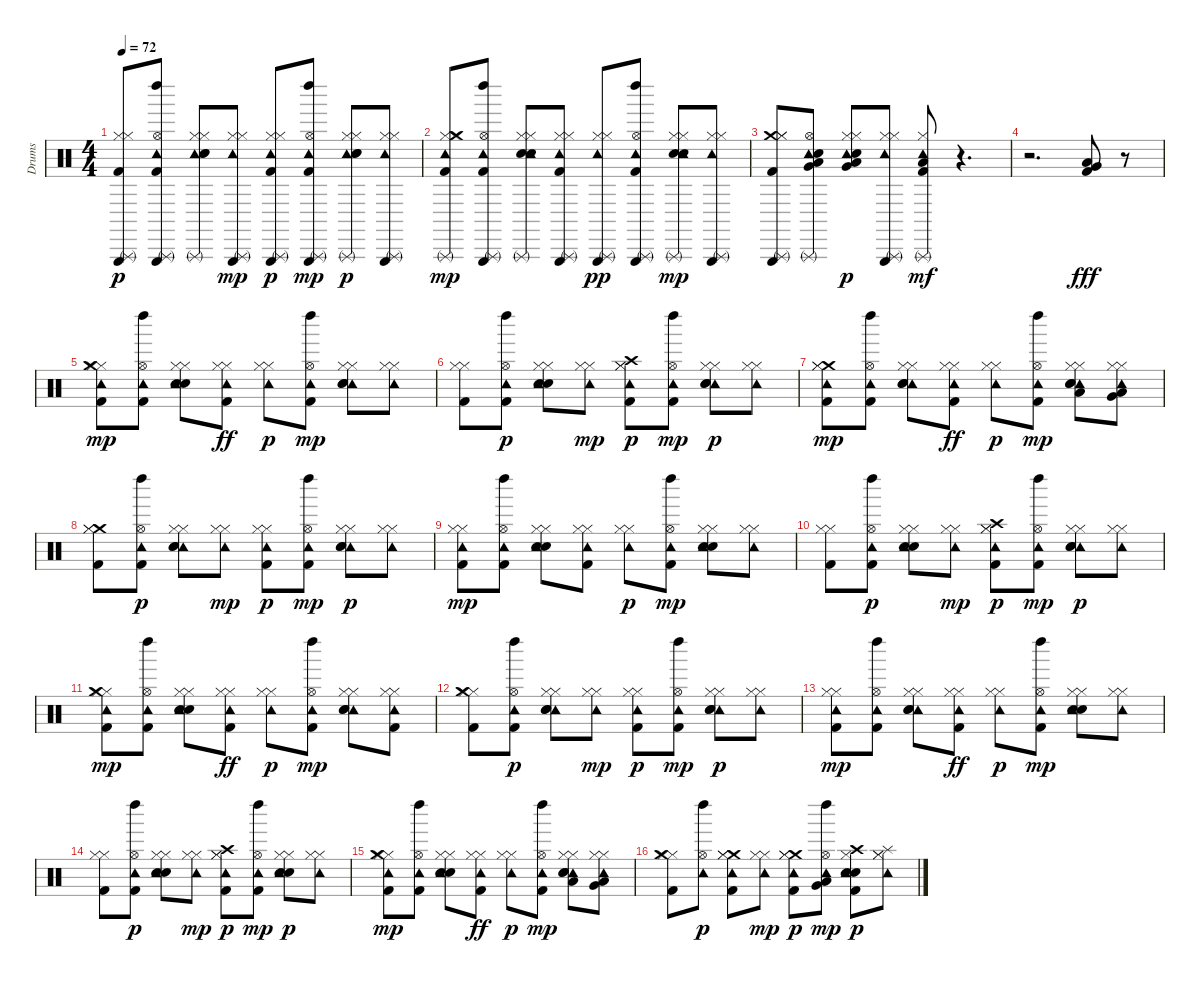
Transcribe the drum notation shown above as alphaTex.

\track ("Drums" "Drums") {instrument percussion}
\staff {score}
\articulation defaults
\ts (4 4)
\tempo 72
\clef neutral
\ks c
("Triangle (rnute)" "Kick (hit) 2" "Hi-Hat (closed)" "Hi-Hat (closed)" "Triangle (hit)").8{dy p} ("Tambourine (hit)" "Kick (hit) 2" "Triangle (rnute)" "Hi-Hat (open)" "Triangle (hit)" "Left Maraca (hit)").8 ("Hi-Hat (closed)" "Tambourine (hit)" "Electric Snare (hit)" "Hand Clap (hit)" "Hi-Hat (closed)" "Triangle (rnute)").8 ("Tambourine (hit)" "Triangle (rnute)" "Hi-Hat (closed)" "Triangle (hit)" "Hi-Hat (closed)").8{dy mp} ("Kick (hit) 2" "Hi-Hat (closed)" "Triangle (rnute)" "Tambourine (hit)" "Triangle (hit)" "Hi-Hat (closed)").8{dy p} ("Tambourine (hit)" "Kick (hit) 2" "Hi-Hat (open)" "Triangle (rnute)" "Triangle (hit)" "Left Maraca (hit)").8{dy mp} ("Tambourine (hit)" "Hi-Hat (closed)" "Hand Clap (hit)" "Electric Snare (hit)" "Triangle (rnute)" "Hi-Hat (closed)").8{dy p} ("Tambourine (hit)" "Hi-Hat (closed)" "Triangle (rnute)" "Triangle (hit)" "Hi-Hat (closed)").8 |
("Hi-Hat (closed)" "Kick (hit) 2" "Tambourine (hit)" "Triangle (rnute)" "Crash medium (hit)" "Hi-Hat (closed)").8{dy mp} ("Kick (hit) 2" "Hi-Hat (open)" "Tambourine (hit)" "Triangle (rnute)" "Triangle (hit)" "Left Maraca (hit)").8 ("Hand Clap (hit)" "Tambourine (hit)" "Electric Snare (hit)" "Hi-Hat (closed)" "Triangle (rnute)" "Hi-Hat (closed)").8 ("Hi-Hat (closed)" "Tambourine (hit)" "Triangle (rnute)" "Kick (hit) 2" "Triangle (hit)" "Hi-Hat (closed)").8 ("Triangle (rnute)" "Hi-Hat (closed)" "Tambourine (hit)" "Hi-Hat (closed)" "Triangle (hit)").8{dy pp} ("Triangle (rnute)" "Tambourine (hit)" "Kick (hit) 2" "Hi-Hat (open)" "Left Maraca (hit)" "Triangle (hit)").8 ("Electric Snare (hit)" "Hi-Hat (closed)" "Tambourine (hit)" "Hand Clap (hit)" "Triangle (rnute)" "Hi-Hat (closed)").8{dy mp} ("Triangle (rnute)" "Tambourine (hit)" "Hi-Hat (closed)" "Triangle (hit)" "Hi-Hat (closed)").8 |
("Triangle (rnute)" "Crash medium (hit)" "Hi-Hat (closed)" "Kick (hit) 2" "Triangle (hit)" "Hi-Hat (closed)").8 ("Tambourine (hit)" "Low Tom (hit)" "Hi-Hat (open)" "Triangle (rnute)" "Very Low Tom (hit)" "Hand Clap (hit)").8 ("Tambourine (hit)" "Hi-Hat (closed)" "Very Low Tom (hit)" "Low Floor Tom (hit)" "Hi-Hat (closed)" "Electric Snare (hit)").8{dy p} ("Hi-Hat (closed)" "Tambourine (hit)" "Triangle (rnute)" "Hi-Hat (closed)" "Triangle (hit)").8 ("Triangle (rnute)" "Kick (hit) 2" "Tambourine (hit)" "Low Floor Tom (hit)" "Hi-Hat (closed)").8{dy mf} r.4{d} |
r.2{d} ("Low Floor Tom (hit)" "Kick (hit) 2" "Very Low Tom (hit)").8{dy fff} r.8 |
("Hi-Hat (closed)" "Tambourine (hit)" "Kick (hit) 2" "Crash medium (hit)" "Hi-Hat (closed)").8{dy mp} ("Kick (hit) 2" "Hi-Hat (open)" "Tambourine (hit)" "Left Maraca (hit)").8 ("Hand Clap (hit)" "Electric Snare (hit)" "Hi-Hat (closed)" "Tambourine (hit)" "Hi-Hat (closed)").8 ("Tambourine (hit)" "Hi-Hat (closed)" "Hi-Hat (closed)" "Kick (hit) 2").8{dy ff} ("Tambourine (hit)" "Hi-Hat (closed)" "Hi-Hat (closed)").8{dy p} ("Kick (hit) 2" "Hi-Hat (open)" "Tambourine (hit)" "Left Maraca (hit)").8{dy mp} ("Tambourine (hit)" "Electric Snare (hit)" "Hand Clap (hit)" "Hi-Hat (closed)" "Hi-Hat (closed)").8 ("Hi-Hat (closed)" "Tambourine (hit)" "Hi-Hat (closed)").8 |
("Hi-Hat (closed)" "Kick (hit) 2" "Hi-Hat (closed)").8 ("Tambourine (hit)" "Kick (hit) 2" "Hi-Hat (open)" "Left Maraca (hit)").8{dy p} ("Hand Clap (hit)" "Electric Snare (hit)" "Hi-Hat (closed)" "Tambourine (hit)" "Hi-Hat (closed)").8 ("Hi-Hat (closed)" "Tambourine (hit)" "Hi-Hat (closed)").8{dy mp} ("Kick (hit) 2" "Tambourine (hit)" "Crash high (hit)" "Hi-Hat (closed)" "Hi-Hat (closed)").8{dy p} ("Hi-Hat (open)" "Kick (hit) 2" "Tambourine (hit)" "Left Maraca (hit)").8{dy mp} ("Tambourine (hit)" "Hand Clap (hit)" "Electric Snare (hit)" "Hi-Hat (closed)" "Hi-Hat (closed)").8{dy p} ("Tambourine (hit)" "Hi-Hat (closed)" "Hi-Hat (closed)").8 |
("Kick (hit) 2" "Crash medium (hit)" "Tambourine (hit)" "Hi-Hat (closed)" "Hi-Hat (closed)").8{dy mp} ("Hi-Hat (open)" "Tambourine (hit)" "Kick (hit) 2" "Left Maraca (hit)").8 ("Hi-Hat (closed)" "Tambourine (hit)" "Electric Snare (hit)" "Hand Clap (hit)" "Hi-Hat (closed)").8 ("Hi-Hat (closed)" "Tambourine (hit)" "Hi-Hat (closed)" "Kick (hit) 2").8{dy ff} ("Tambourine (hit)" "Hi-Hat (closed)" "Hi-Hat (closed)").8{dy p} ("Tambourine (hit)" "Kick (hit) 2" "Hi-Hat (open)" "Left Maraca (hit)").8{dy mp} ("Low Tom (hit)" "Hi-Hat (closed)" "Tambourine (hit)" "Electric Snare (hit)" "Hand Clap (hit)" "Hi-Hat (closed)").8 ("Very Low Tom (hit)" "Tambourine (hit)" "Hi-Hat (closed)" "Low Floor Tom (hit)" "Hi-Hat (closed)").8 |
("Kick (hit) 2" "Crash medium (hit)" "Hi-Hat (closed)" "Hi-Hat (closed)").8 ("Tambourine (hit)" "Kick (hit) 2" "Hi-Hat (open)" "Left Maraca (hit)").8{dy p} ("Tambourine (hit)" "Hi-Hat (closed)" "Hand Clap (hit)" "Electric Snare (hit)" "Hi-Hat (closed)").8 ("Tambourine (hit)" "Hi-Hat (closed)" "Hi-Hat (closed)").8{dy mp} ("Hi-Hat (closed)" "Tambourine (hit)" "Kick (hit) 2" "Hi-Hat (closed)").8{dy p} ("Tambourine (hit)" "Hi-Hat (open)" "Kick (hit) 2" "Left Maraca (hit)").8{dy mp} ("Hi-Hat (closed)" "Tambourine (hit)" "Electric Snare (hit)" "Hand Clap (hit)" "Hi-Hat (closed)").8{dy p} ("Hi-Hat (closed)" "Tambourine (hit)" "Hi-Hat (closed)").8 |
("Tambourine (hit)" "Kick (hit) 2" "Hi-Hat (closed)" "Hi-Hat (closed)").8{dy mp} ("Kick (hit) 2" "Hi-Hat (open)" "Tambourine (hit)" "Left Maraca (hit)").8 ("Hand Clap (hit)" "Hi-Hat (closed)" "Tambourine (hit)" "Electric Snare (hit)" "Hi-Hat (closed)").8 ("Tambourine (hit)" "Hi-Hat (closed)" "Kick (hit) 2" "Hi-Hat (closed)").8 ("Tambourine (hit)" "Hi-Hat (closed)" "Hi-Hat (closed)").8{dy p} ("Tambourine (hit)" "Kick (hit) 2" "Hi-Hat (open)" "Left Maraca (hit)").8{dy mp} ("Hi-Hat (closed)" "Hand Clap (hit)" "Electric Snare (hit)" "Tambourine (hit)" "Hi-Hat (closed)").8 ("Tambourine (hit)" "Hi-Hat (closed)" "Hi-Hat (closed)").8 |
("Hi-Hat (closed)" "Kick (hit) 2" "Hi-Hat (closed)").8 ("Kick (hit) 2" "Hi-Hat (open)" "Tambourine (hit)" "Left Maraca (hit)").8{dy p} ("Hand Clap (hit)" "Hi-Hat (closed)" "Electric Snare (hit)" "Tambourine (hit)" "Hi-Hat (closed)").8 ("Hi-Hat (closed)" "Tambourine (hit)" "Hi-Hat (closed)").8{dy mp} ("Kick (hit) 2" "Crash high (hit)" "Tambourine (hit)" "Hi-Hat (closed)" "Hi-Hat (closed)").8{dy p} ("Tambourine (hit)" "Kick (hit) 2" "Hi-Hat (open)" "Left Maraca (hit)").8{dy mp} ("Tambourine (hit)" "Hi-Hat (closed)" "Electric Snare (hit)" "Hand Clap (hit)" "Hi-Hat (closed)").8{dy p} ("Tambourine (hit)" "Hi-Hat (closed)" "Hi-Hat (closed)").8 |
("Hi-Hat (closed)" "Tambourine (hit)" "Crash medium (hit)" "Kick (hit) 2" "Hi-Hat (closed)").8{dy mp} ("Kick (hit) 2" "Hi-Hat (open)" "Tambourine (hit)" "Left Maraca (hit)").8 ("Hi-Hat (closed)" "Hand Clap (hit)" "Tambourine (hit)" "Electric Snare (hit)" "Hi-Hat (closed)").8 ("Hi-Hat (closed)" "Tambourine (hit)" "Hi-Hat (closed)" "Kick (hit) 2").8{dy ff} ("Hi-Hat (closed)" "Tambourine (hit)" "Hi-Hat (closed)").8{dy p} ("Tambourine (hit)" "Kick (hit) 2" "Hi-Hat (open)" "Left Maraca (hit)").8{dy mp} ("Hi-Hat (closed)" "Tambourine (hit)" "Electric Snare (hit)" "Hand Clap (hit)" "Hi-Hat (closed)").8 ("Tambourine (hit)" "Hi-Hat (closed)" "Kick (hit) 2" "Hi-Hat (closed)").8 |
("Kick (hit) 2" "Hi-Hat (closed)" "Crash medium (hit)" "Hi-Hat (closed)").8 ("Hi-Hat (open)" "Tambourine (hit)" "Kick (hit) 2" "Left Maraca (hit)").8{dy p} ("Tambourine (hit)" "Hand Clap (hit)" "Hi-Hat (closed)" "Electric Snare (hit)" "Hi-Hat (closed)").8 ("Tambourine (hit)" "Hi-Hat (closed)" "Hi-Hat (closed)").8{dy mp} ("Tambourine (hit)" "Kick (hit) 2" "Hi-Hat (closed)" "Hi-Hat (closed)").8{dy p} ("Hi-Hat (open)" "Kick (hit) 2" "Tambourine (hit)" "Left Maraca (hit)").8{dy mp} ("Tambourine (hit)" "Hi-Hat (closed)" "Hand Clap (hit)" "Electric Snare (hit)" "Hi-Hat (closed)").8{dy p} ("Hi-Hat (closed)" "Tambourine (hit)" "Hi-Hat (closed)").8 |
("Kick (hit) 2" "Hi-Hat (closed)" "Tambourine (hit)" "Hi-Hat (closed)").8{dy mp} ("Hi-Hat (open)" "Kick (hit) 2" "Tambourine (hit)" "Left Maraca (hit)").8 ("Tambourine (hit)" "Electric Snare (hit)" "Hi-Hat (closed)" "Hand Clap (hit)" "Hi-Hat (closed)").8 ("Tambourine (hit)" "Hi-Hat (closed)" "Hi-Hat (closed)" "Kick (hit) 2").8{dy ff} ("Tambourine (hit)" "Hi-Hat (closed)" "Hi-Hat (closed)").8{dy p} ("Tambourine (hit)" "Kick (hit) 2" "Hi-Hat (open)" "Left Maraca (hit)").8{dy mp} ("Electric Snare (hit)" "Tambourine (hit)" "Hand Clap (hit)" "Hi-Hat (closed)" "Hi-Hat (closed)").8 ("Hi-Hat (closed)" "Tambourine (hit)" "Hi-Hat (closed)").8 |
("Kick (hit) 2" "Hi-Hat (closed)" "Hi-Hat (closed)").8 ("Hi-Hat (open)" "Kick (hit) 2" "Tambourine (hit)" "Left Maraca (hit)").8{dy p} ("Hand Clap (hit)" "Hi-Hat (closed)" "Tambourine (hit)" "Electric Snare (hit)" "Hi-Hat (closed)").8 ("Hi-Hat (closed)" "Tambourine (hit)" "Hi-Hat (closed)").8{dy mp} ("Hi-Hat (closed)" "Kick (hit) 2" "Crash high (hit)" "Tambourine (hit)" "Hi-Hat (closed)").8{dy p} ("Kick (hit) 2" "Hi-Hat (open)" "Tambourine (hit)" "Left Maraca (hit)").8{dy mp} ("Hand Clap (hit)" "Electric Snare (hit)" "Hi-Hat (closed)" "Tambourine (hit)" "Hi-Hat (closed)").8{dy p} ("Hi-Hat (closed)" "Tambourine (hit)" "Hi-Hat (closed)").8 |
("Hi-Hat (closed)" "Tambourine (hit)" "Crash medium (hit)" "Kick (hit) 2" "Hi-Hat (closed)").8{dy mp} ("Tambourine (hit)" "Hi-Hat (open)" "Kick (hit) 2" "Left Maraca (hit)").8 ("Hand Clap (hit)" "Electric Snare (hit)" "Hi-Hat (closed)" "Tambourine (hit)" "Hi-Hat (closed)").8 ("Tambourine (hit)" "Hi-Hat (closed)" "Hi-Hat (closed)" "Kick (hit) 2").8{dy ff} ("Tambourine (hit)" "Hi-Hat (closed)" "Hi-Hat (closed)").8{dy p} ("Tambourine (hit)" "Hi-Hat (open)" "Kick (hit) 2" "Left Maraca (hit)").8{dy mp} ("Low Tom (hit)" "Tambourine (hit)" "Hand Clap (hit)" "Hi-Hat (closed)" "Electric Snare (hit)" "Hi-Hat (closed)").8 ("Tambourine (hit)" "Hi-Hat (closed)" "Low Floor Tom (hit)" "Very Low Tom (hit)" "Hi-Hat (closed)").8 |
("Hi-Hat (closed)" "Crash medium (hit)" "Kick (hit) 2" "Hi-Hat (closed)").8 ("Tambourine (hit)" "Hi-Hat (open)" "Left Maraca (hit)").8{dy p} ("Crash medium (hit)" "Kick (hit) 2" "Hi-Hat (closed)" "Tambourine (hit)" "Hi-Hat (closed)").8 ("Tambourine (hit)" "Hi-Hat (closed)" "Hi-Hat (closed)").8{dy mp} ("Crash medium (hit)" "Tambourine (hit)" "Hi-Hat (closed)" "Kick (hit) 2" "Hi-Hat (closed)").8{dy p} ("Tambourine (hit)" "Hi-Hat (open)" "Low Tom (hit)" "Very Low Tom (hit)" "Left Maraca (hit)").8{dy mp} ("Kick (hit) 2" "Hand Clap (hit)" "Crash high (hit)" "Electric Snare (hit)" "Hi-Hat (closed)" "Tambourine (hit)").8{dy p} ("Tambourine (hit)" "Hi-Hat (closed)" "Splash (hit)" "Hi-Hat (closed)").8
